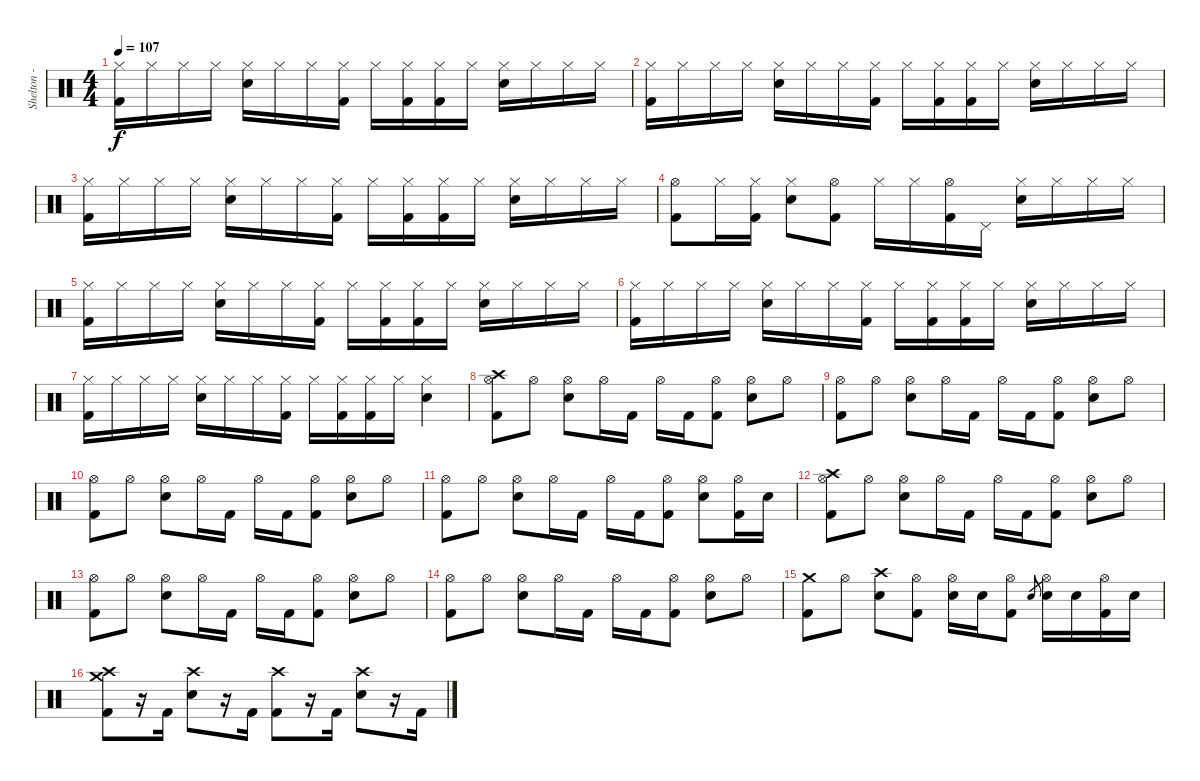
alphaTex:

\track ("Shelton - Drums" "Shelton - ") {instrument percussion}
\staff {score}
\articulation defaults
\ts (4 4)
\tempo 107
\clef neutral
\ks c
("Hi-Hat (closed)" "Kick (hit) 2").16{dy f} "Hi-Hat (closed)".16 "Hi-Hat (closed)".16 "Hi-Hat (closed)".16 ("Hi-Hat (closed)" "Electric Snare (hit)").16 "Hi-Hat (closed)".16 "Hi-Hat (closed)".16 ("Hi-Hat (closed)" "Kick (hit) 2").16 "Hi-Hat (closed)".16 ("Hi-Hat (closed)" "Kick (hit) 2").16 ("Hi-Hat (closed)" "Kick (hit) 2").16 "Hi-Hat (closed)".16 ("Hi-Hat (closed)" "Electric Snare (hit)").16 "Hi-Hat (closed)".16 "Hi-Hat (closed)".16 "Hi-Hat (closed)".16 |
("Hi-Hat (closed)" "Kick (hit) 2").16 "Hi-Hat (closed)".16 "Hi-Hat (closed)".16 "Hi-Hat (closed)".16 ("Hi-Hat (closed)" "Electric Snare (hit)").16 "Hi-Hat (closed)".16 "Hi-Hat (closed)".16 ("Hi-Hat (closed)" "Kick (hit) 2").16 "Hi-Hat (closed)".16 ("Hi-Hat (closed)" "Kick (hit) 2").16 ("Hi-Hat (closed)" "Kick (hit) 2").16 "Hi-Hat (closed)".16 ("Hi-Hat (closed)" "Electric Snare (hit)").16 "Hi-Hat (closed)".16 "Hi-Hat (closed)".16 "Hi-Hat (closed)".16 |
("Hi-Hat (closed)" "Kick (hit) 2").16 "Hi-Hat (closed)".16 "Hi-Hat (closed)".16 "Hi-Hat (closed)".16 ("Hi-Hat (closed)" "Electric Snare (hit)").16 "Hi-Hat (closed)".16 "Hi-Hat (closed)".16 ("Hi-Hat (closed)" "Kick (hit) 2").16 "Hi-Hat (closed)".16 ("Hi-Hat (closed)" "Kick (hit) 2").16 ("Hi-Hat (closed)" "Kick (hit) 2").16 "Hi-Hat (closed)".16 ("Hi-Hat (closed)" "Electric Snare (hit)").16 "Hi-Hat (closed)".16 "Hi-Hat (closed)".16 "Hi-Hat (closed)".16 |
("Hi-Hat (open)" "Kick (hit) 2").8 "Hi-Hat (closed)".16 ("Hi-Hat (closed)" "Kick (hit) 2").16 ("Hi-Hat (closed)" "Electric Snare (hit)").8 ("Hi-Hat (open)" "Kick (hit) 2").8 "Hi-Hat (closed)".16 "Hi-Hat (closed)".16 ("Hi-Hat (open)" "Kick (hit) 2").16 "Pedal Hi-Hat (hit)".16 ("Hi-Hat (closed)" "Electric Snare (hit)").16 "Hi-Hat (closed)".16 "Hi-Hat (closed)".16 "Hi-Hat (closed)".16 |
("Hi-Hat (closed)" "Kick (hit) 2").16 "Hi-Hat (closed)".16 "Hi-Hat (closed)".16 "Hi-Hat (closed)".16 ("Hi-Hat (closed)" "Electric Snare (hit)").16 "Hi-Hat (closed)".16 "Hi-Hat (closed)".16 ("Hi-Hat (closed)" "Kick (hit) 2").16 "Hi-Hat (closed)".16 ("Hi-Hat (closed)" "Kick (hit) 2").16 ("Hi-Hat (closed)" "Kick (hit) 2").16 "Hi-Hat (closed)".16 ("Hi-Hat (closed)" "Electric Snare (hit)").16 "Hi-Hat (closed)".16 "Hi-Hat (closed)".16 "Hi-Hat (closed)".16 |
("Hi-Hat (closed)" "Kick (hit) 2").16 "Hi-Hat (closed)".16 "Hi-Hat (closed)".16 "Hi-Hat (closed)".16 ("Hi-Hat (closed)" "Electric Snare (hit)").16 "Hi-Hat (closed)".16 "Hi-Hat (closed)".16 ("Hi-Hat (closed)" "Kick (hit) 2").16 "Hi-Hat (closed)".16 ("Hi-Hat (closed)" "Kick (hit) 2").16 ("Hi-Hat (closed)" "Kick (hit) 2").16 "Hi-Hat (closed)".16 ("Hi-Hat (closed)" "Electric Snare (hit)").16 "Hi-Hat (closed)".16 "Hi-Hat (closed)".16 "Hi-Hat (closed)".16 |
("Hi-Hat (closed)" "Kick (hit) 2").16 "Hi-Hat (closed)".16 "Hi-Hat (closed)".16 "Hi-Hat (closed)".16 ("Hi-Hat (closed)" "Electric Snare (hit)").16 "Hi-Hat (closed)".16 "Hi-Hat (closed)".16 ("Hi-Hat (closed)" "Kick (hit) 2").16 "Hi-Hat (closed)".16 ("Hi-Hat (closed)" "Kick (hit) 2").16 ("Hi-Hat (closed)" "Kick (hit) 2").16 "Hi-Hat (closed)".16 ("Hi-Hat (closed)" "Electric Snare (hit)").4 |
("Hi-Hat (open)" "Crash high (hit)" "Kick (hit) 2").8 "Hi-Hat (open)".8 ("Hi-Hat (open)" "Electric Snare (hit)").8 "Hi-Hat (open)".16 "Kick (hit) 2".16 "Hi-Hat (open)".16 "Kick (hit) 2".16 ("Hi-Hat (open)" "Kick (hit) 2").8 ("Hi-Hat (open)" "Electric Snare (hit)").8 "Hi-Hat (open)".8 |
("Hi-Hat (open)" "Kick (hit) 2").8 "Hi-Hat (open)".8 ("Hi-Hat (open)" "Electric Snare (hit)").8 "Hi-Hat (open)".16 "Kick (hit) 2".16 "Hi-Hat (open)".16 "Kick (hit) 2".16 ("Hi-Hat (open)" "Kick (hit) 2").8 ("Hi-Hat (open)" "Electric Snare (hit)").8 "Hi-Hat (open)".8 |
("Hi-Hat (open)" "Kick (hit) 2").8 "Hi-Hat (open)".8 ("Hi-Hat (open)" "Electric Snare (hit)").8 "Hi-Hat (open)".16 "Kick (hit) 2".16 "Hi-Hat (open)".16 "Kick (hit) 2".16 ("Hi-Hat (open)" "Kick (hit) 2").8 ("Hi-Hat (open)" "Electric Snare (hit)").8 "Hi-Hat (open)".8 |
("Hi-Hat (open)" "Kick (hit) 2").8 "Hi-Hat (open)".8 ("Hi-Hat (open)" "Electric Snare (hit)").8 "Hi-Hat (open)".16 "Kick (hit) 2".16 "Hi-Hat (open)".16 "Kick (hit) 2".16 ("Hi-Hat (open)" "Kick (hit) 2").8 ("Hi-Hat (open)" "Electric Snare (hit)").8 ("Hi-Hat (open)" "Kick (hit) 2").16 "Electric Snare (hit)".16 |
("Hi-Hat (open)" "Crash high (hit)" "Kick (hit) 2").8 "Hi-Hat (open)".8 ("Hi-Hat (open)" "Electric Snare (hit)").8 "Hi-Hat (open)".16 "Kick (hit) 2".16 "Hi-Hat (open)".16 "Kick (hit) 2".16 ("Hi-Hat (open)" "Kick (hit) 2").8 ("Hi-Hat (open)" "Electric Snare (hit)").8 "Hi-Hat (open)".8 |
("Hi-Hat (open)" "Kick (hit) 2").8 "Hi-Hat (open)".8 ("Hi-Hat (open)" "Electric Snare (hit)").8 "Hi-Hat (open)".16 "Kick (hit) 2".16 "Hi-Hat (open)".16 "Kick (hit) 2".16 ("Hi-Hat (open)" "Kick (hit) 2").8 ("Hi-Hat (open)" "Electric Snare (hit)").8 "Hi-Hat (open)".8 |
("Hi-Hat (open)" "Kick (hit) 2").8 "Hi-Hat (open)".8 ("Hi-Hat (open)" "Electric Snare (hit)").8 "Hi-Hat (open)".16 "Kick (hit) 2".16 "Hi-Hat (open)".16 "Kick (hit) 2".16 ("Hi-Hat (open)" "Kick (hit) 2").8 ("Hi-Hat (open)" "Electric Snare (hit)").8 "Hi-Hat (open)".8 |
("Crash medium (hit)" "Kick (hit) 2").8 "Hi-Hat (open)".8 ("Crash high (hit)" "Electric Snare (hit)").8 ("Hi-Hat (open)" "Kick (hit) 2").8 ("Hi-Hat (open)" "Electric Snare (hit)").16 "Electric Snare (hit)".16 ("Hi-Hat (open)" "Kick (hit) 2").8 "Electric Snare (hit)".8{gr} ("Hi-Hat (open)" "Electric Snare (hit)").16 "Electric Snare (hit)".16 ("Hi-Hat (open)" "Kick (hit) 2").16 "Electric Snare (hit)".16 |
("Crash high (hit)" "Crash medium (hit)" "Kick (hit) 2").8 r.16 "Kick (hit) 2".16 ("Crash high (hit)" "Electric Snare (hit)").8 r.16 "Kick (hit) 2".16 ("Crash high (hit)" "Kick (hit) 2").8 r.16 "Kick (hit) 2".16 ("Crash high (hit)" "Electric Snare (hit)").8 r.16 "Kick (hit) 2".16
